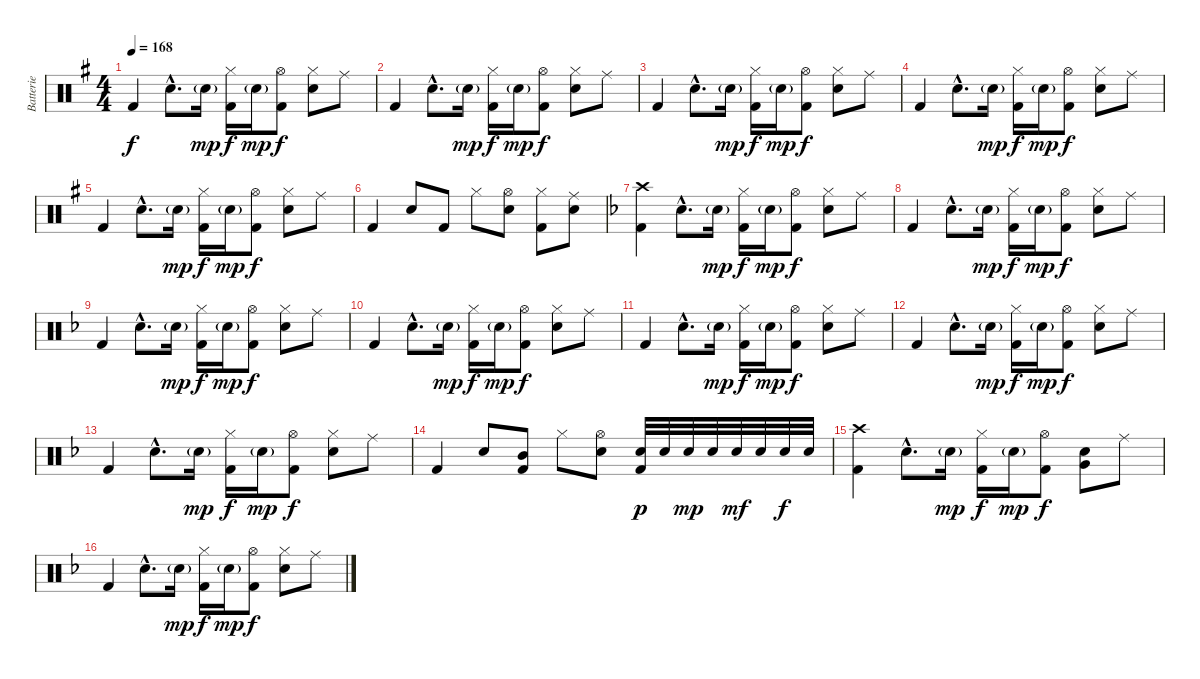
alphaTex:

\track ("Batterie" "Batterie") {instrument percussion}
\staff {score}
\articulation defaults
\ts (4 4)
\tempo 168
\clef neutral
\ks g "Kick (hit) 2".4{dy f} "Snare (hit) 2"{hac}.8{d} "Snare (hit) 2"{g}.16{dy mp}
("Hi-Hat (closed)" "Kick (hit) 2").16{dy f} "Snare (hit) 2"{g}.16{dy mp} ("Hi-Hat (open)" "Kick (hit) 2").8{dy f} ("Hi-Hat (closed)" "Snare (hit) 2").8 "Ride (middle)".8 |
"Kick (hit) 2".4 "Snare (hit) 2"{hac}.8{d} "Snare (hit) 2"{g}.16{dy mp} ("Hi-Hat (closed)" "Kick (hit) 2").16{dy f} "Snare (hit) 2"{g}.16{dy mp} ("Hi-Hat (open)" "Kick (hit) 2").8{dy f} ("Hi-Hat (closed)" "Snare (hit) 2").8 "Ride (middle)".8 |
"Kick (hit) 2".4 "Snare (hit) 2"{hac}.8{d} "Snare (hit) 2"{g}.16{dy mp} ("Hi-Hat (closed)" "Kick (hit) 2").16{dy f} "Snare (hit) 2"{g}.16{dy mp} ("Hi-Hat (open)" "Kick (hit) 2").8{dy f} ("Hi-Hat (closed)" "Snare (hit) 2").8 "Ride (middle)".8 |
"Kick (hit) 2".4 "Snare (hit) 2"{hac}.8{d} "Snare (hit) 2"{g}.16{dy mp} ("Hi-Hat (closed)" "Kick (hit) 2").16{dy f} "Snare (hit) 2"{g}.16{dy mp} ("Hi-Hat (open)" "Kick (hit) 2").8{dy f} ("Hi-Hat (closed)" "Snare (hit) 2").8 "Ride (middle)".8 |
"Kick (hit) 2".4 "Snare (hit) 2"{hac}.8{d} "Snare (hit) 2"{g}.16{dy mp} ("Hi-Hat (closed)" "Kick (hit) 2").16{dy f} "Snare (hit) 2"{g}.16{dy mp} ("Hi-Hat (open)" "Kick (hit) 2").8{dy f} ("Hi-Hat (closed)" "Snare (hit) 2").8 "Ride (middle)".8 |
"Kick (hit) 2".4 "Snare (hit) 2".8 "Kick (hit) 2".8 "Hi-Hat (closed)".8 ("Hi-Hat (open)" "Snare (hit) 2").8 ("Hi-Hat (closed)" "Kick (hit) 2").8 ("Ride (middle)" "Snare (hit) 2").8 |
\ks f
("Crash high (hit)" "Kick (hit) 2").4 "Snare (hit) 2"{hac}.8{d} "Snare (hit) 2"{g}.16{dy mp} ("Hi-Hat (closed)" "Kick (hit) 2").16{dy f} "Snare (hit) 2"{g}.16{dy mp} ("Hi-Hat (open)" "Kick (hit) 2").8{dy f} ("Hi-Hat (closed)" "Snare (hit) 2").8 "Ride (middle)".8 |
"Kick (hit) 2".4 "Snare (hit) 2"{hac}.8{d} "Snare (hit) 2"{g}.16{dy mp} ("Hi-Hat (closed)" "Kick (hit) 2").16{dy f} "Snare (hit) 2"{g}.16{dy mp} ("Hi-Hat (open)" "Kick (hit) 2").8{dy f} ("Hi-Hat (closed)" "Snare (hit) 2").8 "Ride (middle)".8 |
"Kick (hit) 2".4 "Snare (hit) 2"{hac}.8{d} "Snare (hit) 2"{g}.16{dy mp} ("Hi-Hat (closed)" "Kick (hit) 2").16{dy f} "Snare (hit) 2"{g}.16{dy mp} ("Hi-Hat (open)" "Kick (hit) 2").8{dy f} ("Hi-Hat (closed)" "Snare (hit) 2").8 "Ride (middle)".8 |
"Kick (hit) 2".4 "Snare (hit) 2"{hac}.8{d} "Snare (hit) 2"{g}.16{dy mp} ("Hi-Hat (closed)" "Kick (hit) 2").16{dy f} "Snare (hit) 2"{g}.16{dy mp} ("Hi-Hat (open)" "Kick (hit) 2").8{dy f} ("Hi-Hat (closed)" "Snare (hit) 2").8 "Ride (middle)".8 |
"Kick (hit) 2".4 "Snare (hit) 2"{hac}.8{d} "Snare (hit) 2"{g}.16{dy mp} ("Hi-Hat (closed)" "Kick (hit) 2").16{dy f} "Snare (hit) 2"{g}.16{dy mp} ("Hi-Hat (open)" "Kick (hit) 2").8{dy f} ("Hi-Hat (closed)" "Snare (hit) 2").8 "Ride (middle)".8 |
"Kick (hit) 2".4 "Snare (hit) 2"{hac}.8{d} "Snare (hit) 2"{g}.16{dy mp} ("Hi-Hat (closed)" "Kick (hit) 2").16{dy f} "Snare (hit) 2"{g}.16{dy mp} ("Hi-Hat (open)" "Kick (hit) 2").8{dy f} ("Hi-Hat (closed)" "Snare (hit) 2").8 "Ride (middle)".8 |
"Kick (hit) 2".4 "Snare (hit) 2"{hac}.8{d} "Snare (hit) 2"{g}.16{dy mp} ("Hi-Hat (closed)" "Kick (hit) 2").16{dy f} "Snare (hit) 2"{g}.16{dy mp} ("Hi-Hat (open)" "Kick (hit) 2").8{dy f} ("Hi-Hat (closed)" "Snare (hit) 2").8 "Ride (middle)".8 |
"Kick (hit) 2".4 "Snare (hit) 2".8 ("Mid Tom (hit)" "Kick (hit) 2").8 "Hi-Hat (closed)".8 ("Hi-Hat (open)" "Snare (hit) 2").8 ("Snare (hit) 2" "Kick (hit) 2").32{dy p} "Snare (hit) 2".32 "Snare (hit) 2".32{dy mp} "Snare (hit) 2".32 "Snare (hit) 2".32{dy mf} "Snare (hit) 2".32 "Snare (hit) 2".32{dy f} "Snare (hit) 2".32 |
("Crash high (hit)" "Kick (hit) 2").4 "Snare (hit) 2"{hac}.8{d} "Snare (hit) 2"{g}.16{dy mp} ("Hi-Hat (closed)" "Kick (hit) 2").16{dy f} "Snare (hit) 2"{g}.16{dy mp} ("Hi-Hat (open)" "Kick (hit) 2").8{dy f} ("Snare (hit) 2" "Very Low Tom (hit)").8 "Ride (middle)".8 |
"Kick (hit) 2".4 "Snare (hit) 2"{hac}.8{d} "Snare (hit) 2"{g}.16{dy mp} ("Hi-Hat (closed)" "Kick (hit) 2").16{dy f} "Snare (hit) 2"{g}.16{dy mp} ("Hi-Hat (open)" "Kick (hit) 2").8{dy f} ("Hi-Hat (closed)" "Snare (hit) 2").8 "Ride (middle)".8
